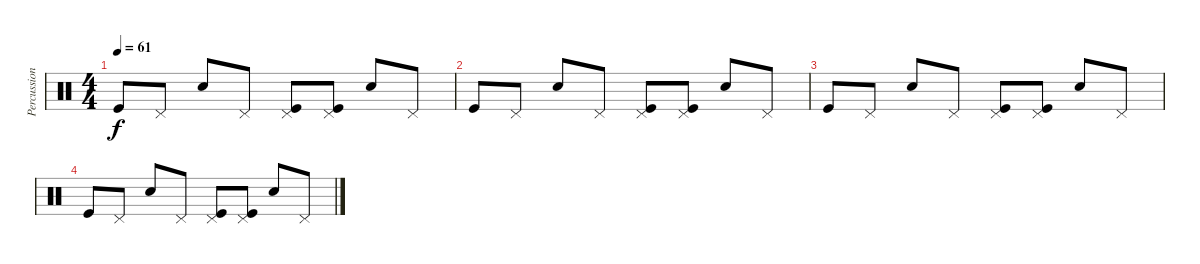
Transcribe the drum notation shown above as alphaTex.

\track ("Percussion" "Percussion") {instrument percussion}
\staff {score}
\articulation defaults
\ts (4 4)
\tempo 61
\clef neutral
\ks c "Kick (hit)".8{dy f} "Pedal Hi-Hat (hit)".8 "Snare (hit) 2".8 "Pedal Hi-Hat (hit)".8
("Pedal Hi-Hat (hit)" "Kick (hit)").8 ("Pedal Hi-Hat (hit)" "Kick (hit)").8 "Snare (hit) 2".8 "Pedal Hi-Hat (hit)".8 |
"Kick (hit)".8 "Pedal Hi-Hat (hit)".8 "Snare (hit) 2".8 "Pedal Hi-Hat (hit)".8 ("Pedal Hi-Hat (hit)" "Kick (hit)").8 ("Pedal Hi-Hat (hit)" "Kick (hit)").8 "Snare (hit) 2".8 "Pedal Hi-Hat (hit)".8 |
"Kick (hit)".8 "Pedal Hi-Hat (hit)".8 "Snare (hit) 2".8 "Pedal Hi-Hat (hit)".8 ("Pedal Hi-Hat (hit)" "Kick (hit)").8 ("Pedal Hi-Hat (hit)" "Kick (hit)").8 "Snare (hit) 2".8 "Pedal Hi-Hat (hit)".8 |
"Kick (hit)".8 "Pedal Hi-Hat (hit)".8 "Snare (hit) 2".8 "Pedal Hi-Hat (hit)".8 ("Pedal Hi-Hat (hit)" "Kick (hit)").8 ("Pedal Hi-Hat (hit)" "Kick (hit)").8 "Snare (hit) 2".8 "Pedal Hi-Hat (hit)".8
